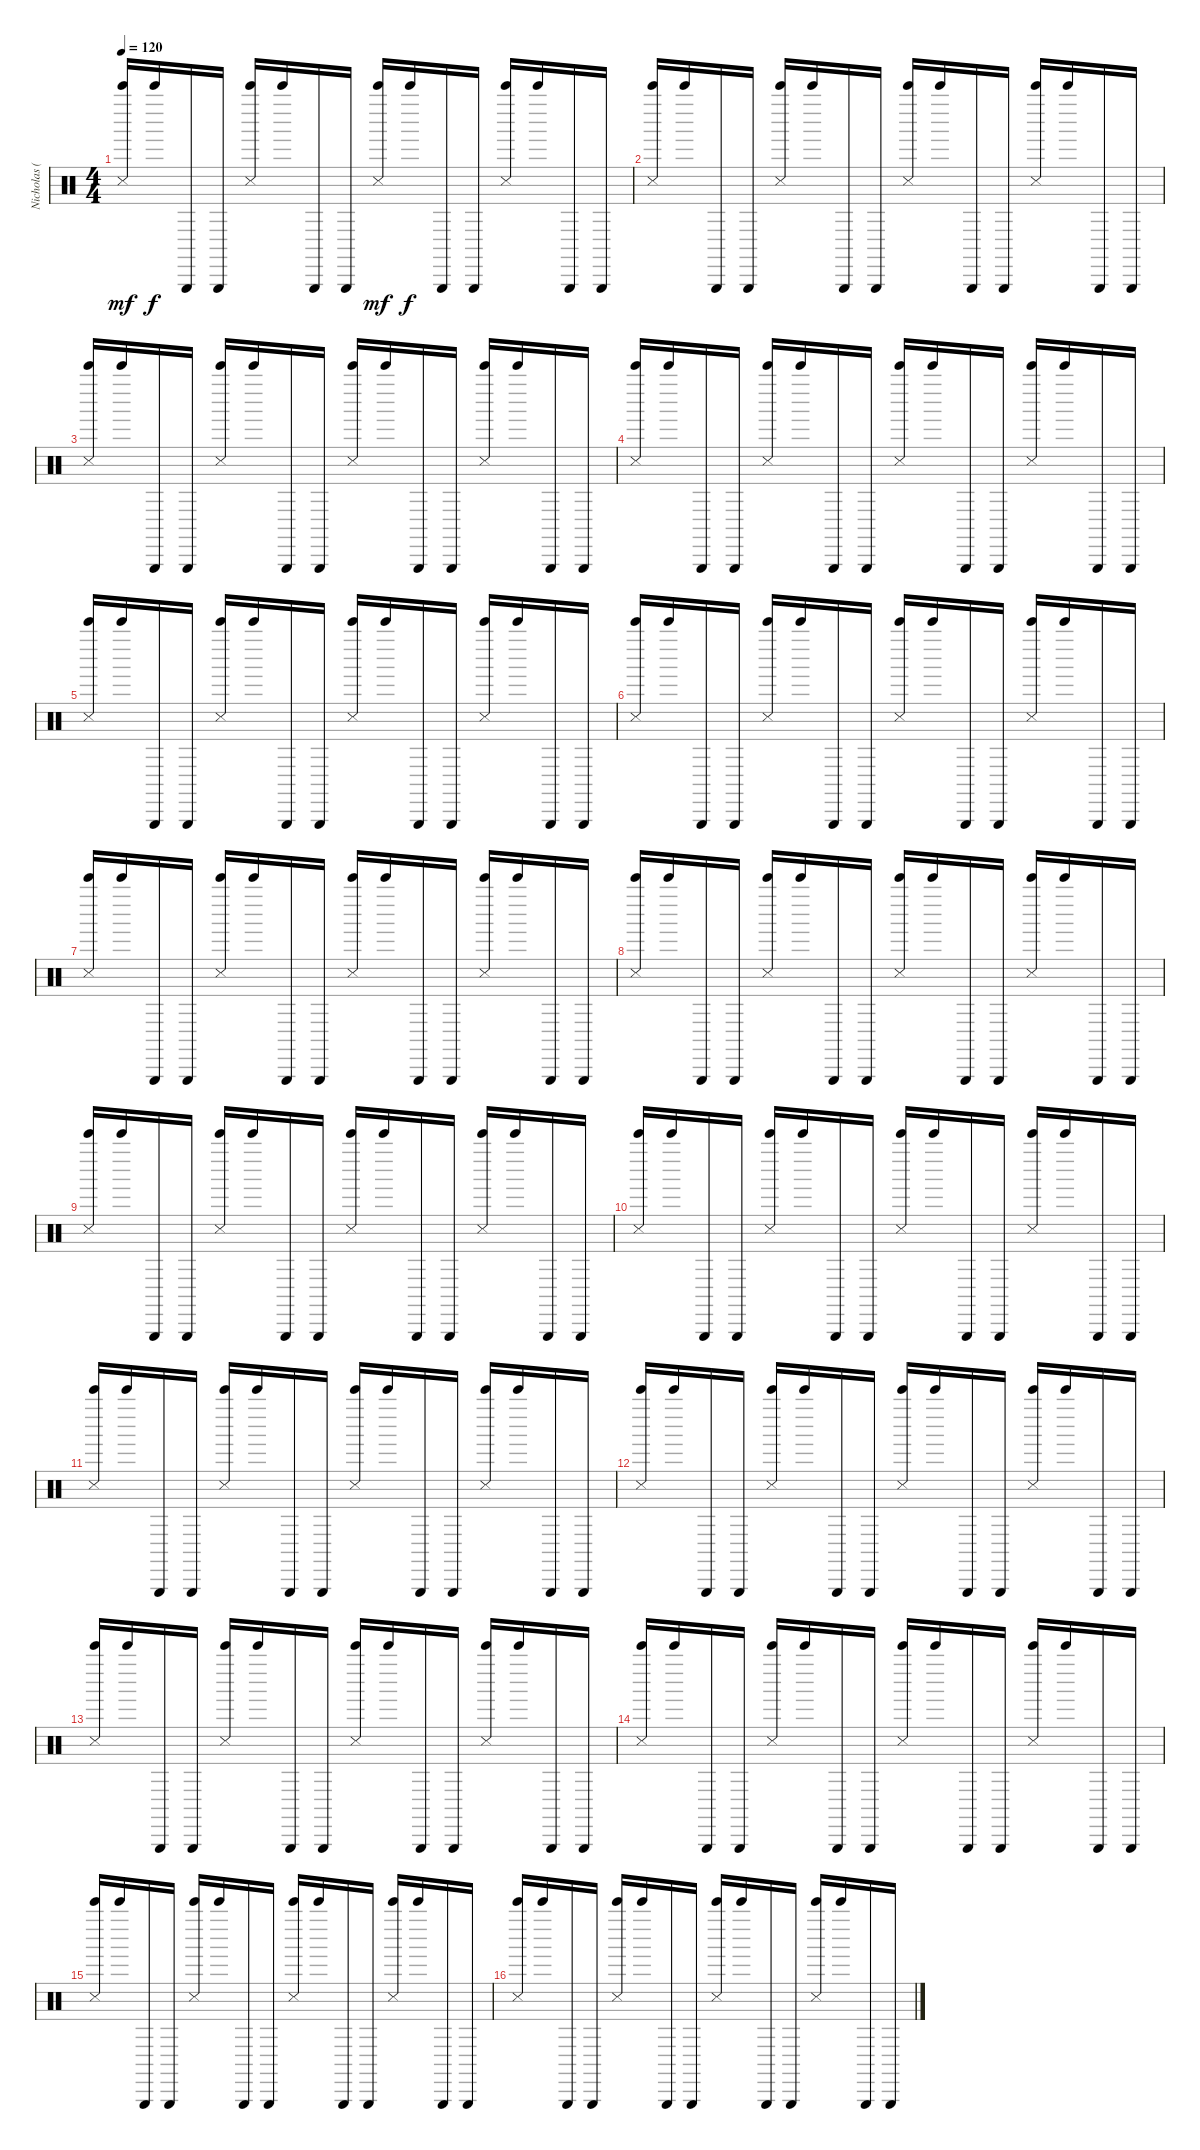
\track ("Nicholas (Drums)" "Nicholas (") {instrument percussion}
\staff {score}
\articulation defaults
\ts (4 4)
\tempo 120
\clef neutral
\ks c
("Bell Tree (hit)" "Snare (side stick) 3").16{dy mf} "Bell Tree (hit)".16{dy f} "Triangle (hit)".16 "Triangle (hit)".16 ("Bell Tree (hit)" "Metronome (hit)").16 "Bell Tree (hit)".16 "Triangle (hit)".16 "Triangle (hit)".16 ("Bell Tree (hit)" "Snare (side stick) 3").16{dy mf} "Bell Tree (hit)".16{dy f} "Triangle (hit)".16 "Triangle (hit)".16 ("Bell Tree (hit)" "Metronome (hit)").16 "Bell Tree (hit)".16 "Triangle (hit)".16 "Triangle (hit)".16 |
("Bell Tree (hit)" "Snare (side stick) 3").16 "Bell Tree (hit)".16 "Triangle (hit)".16 "Triangle (hit)".16 ("Bell Tree (hit)" "Metronome (hit)").16 "Bell Tree (hit)".16 "Triangle (hit)".16 "Triangle (hit)".16 ("Bell Tree (hit)" "Snare (side stick) 3").16 "Bell Tree (hit)".16 "Triangle (hit)".16 "Triangle (hit)".16 ("Bell Tree (hit)" "Metronome (hit)").16 "Bell Tree (hit)".16 "Triangle (hit)".16 "Triangle (hit)".16 |
("Bell Tree (hit)" "Snare (side stick) 3").16 "Bell Tree (hit)".16 "Triangle (hit)".16 "Triangle (hit)".16 ("Bell Tree (hit)" "Metronome (hit)").16 "Bell Tree (hit)".16 "Triangle (hit)".16 "Triangle (hit)".16 ("Bell Tree (hit)" "Snare (side stick) 3").16 "Bell Tree (hit)".16 "Triangle (hit)".16 "Triangle (hit)".16 ("Bell Tree (hit)" "Metronome (hit)").16 "Bell Tree (hit)".16 "Triangle (hit)".16 "Triangle (hit)".16 |
("Bell Tree (hit)" "Snare (side stick) 3").16 "Bell Tree (hit)".16 "Triangle (hit)".16 "Triangle (hit)".16 ("Bell Tree (hit)" "Metronome (hit)").16 "Bell Tree (hit)".16 "Triangle (hit)".16 "Triangle (hit)".16 ("Bell Tree (hit)" "Snare (side stick) 3").16 "Bell Tree (hit)".16 "Triangle (hit)".16 "Triangle (hit)".16 ("Bell Tree (hit)" "Metronome (hit)").16 "Bell Tree (hit)".16 "Triangle (hit)".16 "Triangle (hit)".16 |
("Bell Tree (hit)" "Snare (side stick) 3").16 "Bell Tree (hit)".16 "Triangle (hit)".16 "Triangle (hit)".16 ("Bell Tree (hit)" "Metronome (hit)").16 "Bell Tree (hit)".16 "Triangle (hit)".16 "Triangle (hit)".16 ("Bell Tree (hit)" "Snare (side stick) 3").16 "Bell Tree (hit)".16 "Triangle (hit)".16 "Triangle (hit)".16 ("Bell Tree (hit)" "Metronome (hit)").16 "Bell Tree (hit)".16 "Triangle (hit)".16 "Triangle (hit)".16 |
("Bell Tree (hit)" "Snare (side stick) 3").16 "Bell Tree (hit)".16 "Triangle (hit)".16 "Triangle (hit)".16 ("Bell Tree (hit)" "Metronome (hit)").16 "Bell Tree (hit)".16 "Triangle (hit)".16 "Triangle (hit)".16 ("Bell Tree (hit)" "Snare (side stick) 3").16 "Bell Tree (hit)".16 "Triangle (hit)".16 "Triangle (hit)".16 ("Bell Tree (hit)" "Metronome (hit)").16 "Bell Tree (hit)".16 "Triangle (hit)".16 "Triangle (hit)".16 |
("Bell Tree (hit)" "Snare (side stick) 3").16 "Bell Tree (hit)".16 "Triangle (hit)".16 "Triangle (hit)".16 ("Bell Tree (hit)" "Metronome (hit)").16 "Bell Tree (hit)".16 "Triangle (hit)".16 "Triangle (hit)".16 ("Bell Tree (hit)" "Snare (side stick) 3").16 "Bell Tree (hit)".16 "Triangle (hit)".16 "Triangle (hit)".16 ("Bell Tree (hit)" "Metronome (hit)").16 "Bell Tree (hit)".16 "Triangle (hit)".16 "Triangle (hit)".16 |
("Bell Tree (hit)" "Snare (side stick) 3").16 "Bell Tree (hit)".16 "Triangle (hit)".16 "Triangle (hit)".16 ("Bell Tree (hit)" "Metronome (hit)").16 "Bell Tree (hit)".16 "Triangle (hit)".16 "Triangle (hit)".16 ("Bell Tree (hit)" "Snare (side stick) 3").16 "Bell Tree (hit)".16 "Triangle (hit)".16 "Triangle (hit)".16 ("Bell Tree (hit)" "Metronome (hit)").16 "Bell Tree (hit)".16 "Triangle (hit)".16 "Triangle (hit)".16 |
("Bell Tree (hit)" "Snare (side stick) 3").16 "Bell Tree (hit)".16 "Triangle (hit)".16 "Triangle (hit)".16 ("Bell Tree (hit)" "Metronome (hit)").16 "Bell Tree (hit)".16 "Triangle (hit)".16 "Triangle (hit)".16 ("Bell Tree (hit)" "Snare (side stick) 3").16 "Bell Tree (hit)".16 "Triangle (hit)".16 "Triangle (hit)".16 ("Bell Tree (hit)" "Metronome (hit)").16 "Bell Tree (hit)".16 "Triangle (hit)".16 "Triangle (hit)".16 |
("Bell Tree (hit)" "Snare (side stick) 3").16 "Bell Tree (hit)".16 "Triangle (hit)".16 "Triangle (hit)".16 ("Bell Tree (hit)" "Metronome (hit)").16 "Bell Tree (hit)".16 "Triangle (hit)".16 "Triangle (hit)".16 ("Bell Tree (hit)" "Snare (side stick) 3").16 "Bell Tree (hit)".16 "Triangle (hit)".16 "Triangle (hit)".16 ("Bell Tree (hit)" "Metronome (hit)").16 "Bell Tree (hit)".16 "Triangle (hit)".16 "Triangle (hit)".16 |
("Bell Tree (hit)" "Snare (side stick) 3").16 "Bell Tree (hit)".16 "Triangle (hit)".16 "Triangle (hit)".16 ("Bell Tree (hit)" "Metronome (hit)").16 "Bell Tree (hit)".16 "Triangle (hit)".16 "Triangle (hit)".16 ("Bell Tree (hit)" "Snare (side stick) 3").16 "Bell Tree (hit)".16 "Triangle (hit)".16 "Triangle (hit)".16 ("Bell Tree (hit)" "Metronome (hit)").16 "Bell Tree (hit)".16 "Triangle (hit)".16 "Triangle (hit)".16 |
("Bell Tree (hit)" "Snare (side stick) 3").16 "Bell Tree (hit)".16 "Triangle (hit)".16 "Triangle (hit)".16 ("Bell Tree (hit)" "Metronome (hit)").16 "Bell Tree (hit)".16 "Triangle (hit)".16 "Triangle (hit)".16 ("Bell Tree (hit)" "Snare (side stick) 3").16 "Bell Tree (hit)".16 "Triangle (hit)".16 "Triangle (hit)".16 ("Bell Tree (hit)" "Metronome (hit)").16 "Bell Tree (hit)".16 "Triangle (hit)".16 "Triangle (hit)".16 |
("Bell Tree (hit)" "Snare (side stick) 3").16 "Bell Tree (hit)".16 "Triangle (hit)".16 "Triangle (hit)".16 ("Bell Tree (hit)" "Metronome (hit)").16 "Bell Tree (hit)".16 "Triangle (hit)".16 "Triangle (hit)".16 ("Bell Tree (hit)" "Snare (side stick) 3").16 "Bell Tree (hit)".16 "Triangle (hit)".16 "Triangle (hit)".16 ("Bell Tree (hit)" "Metronome (hit)").16 "Bell Tree (hit)".16 "Triangle (hit)".16 "Triangle (hit)".16 |
("Bell Tree (hit)" "Snare (side stick) 3").16 "Bell Tree (hit)".16 "Triangle (hit)".16 "Triangle (hit)".16 ("Bell Tree (hit)" "Metronome (hit)").16 "Bell Tree (hit)".16 "Triangle (hit)".16 "Triangle (hit)".16 ("Bell Tree (hit)" "Snare (side stick) 3").16 "Bell Tree (hit)".16 "Triangle (hit)".16 "Triangle (hit)".16 ("Bell Tree (hit)" "Metronome (hit)").16 "Bell Tree (hit)".16 "Triangle (hit)".16 "Triangle (hit)".16 |
("Bell Tree (hit)" "Snare (side stick) 3").16 "Bell Tree (hit)".16 "Triangle (hit)".16 "Triangle (hit)".16 ("Bell Tree (hit)" "Metronome (hit)").16 "Bell Tree (hit)".16 "Triangle (hit)".16 "Triangle (hit)".16 ("Bell Tree (hit)" "Snare (side stick) 3").16 "Bell Tree (hit)".16 "Triangle (hit)".16 "Triangle (hit)".16 ("Bell Tree (hit)" "Metronome (hit)").16 "Bell Tree (hit)".16 "Triangle (hit)".16 "Triangle (hit)".16 |
("Bell Tree (hit)" "Snare (side stick) 3").16 "Bell Tree (hit)".16 "Triangle (hit)".16 "Triangle (hit)".16 ("Bell Tree (hit)" "Metronome (hit)").16 "Bell Tree (hit)".16 "Triangle (hit)".16 "Triangle (hit)".16 ("Bell Tree (hit)" "Snare (side stick) 3").16 "Bell Tree (hit)".16 "Triangle (hit)".16 "Triangle (hit)".16 ("Bell Tree (hit)" "Metronome (hit)").16 "Bell Tree (hit)".16 "Triangle (hit)".16 "Triangle (hit)".16
